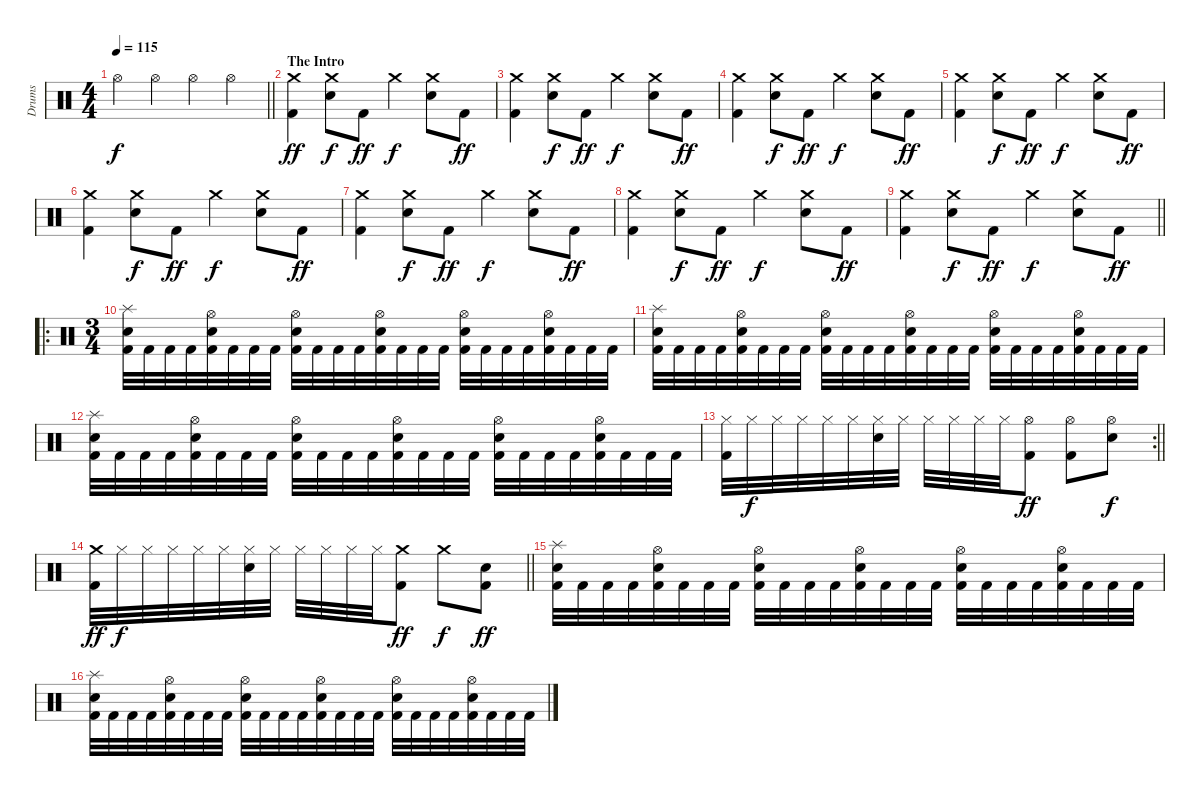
\track ("Drums" "Drums") {instrument percussion}
\staff {score}
\articulation defaults
\ts (4 4)
\tempo 115
\clef neutral
\barLineRight lightlight
\ks c "Hi-Hat (open)".4{dy f} "Hi-Hat (open)".4 "Hi-Hat (open)".4 "Hi-Hat (open)".4
|
\section ("" "The Intro")
("Crash medium (hit)" "Kick (hit) 2").4{dy ff} ("Crash medium (hit)" "Electric Snare (hit)").8{dy f} "Kick (hit) 2".8{dy ff} "Crash medium (hit)".4{dy f} ("Crash medium (hit)" "Electric Snare (hit)").8 "Kick (hit) 2".8{dy ff} |
("Crash medium (hit)" "Kick (hit) 2").4 ("Crash medium (hit)" "Electric Snare (hit)").8{dy f} "Kick (hit) 2".8{dy ff} "Crash medium (hit)".4{dy f} ("Crash medium (hit)" "Electric Snare (hit)").8 "Kick (hit) 2".8{dy ff} |
("Crash medium (hit)" "Kick (hit) 2").4 ("Crash medium (hit)" "Electric Snare (hit)").8{dy f} "Kick (hit) 2".8{dy ff} "Crash medium (hit)".4{dy f} ("Crash medium (hit)" "Electric Snare (hit)").8 "Kick (hit) 2".8{dy ff} |
("Crash medium (hit)" "Kick (hit) 2").4 ("Crash medium (hit)" "Electric Snare (hit)").8{dy f} "Kick (hit) 2".8{dy ff} "Crash medium (hit)".4{dy f} ("Crash medium (hit)" "Electric Snare (hit)").8 "Kick (hit) 2".8{dy ff} |
("Crash medium (hit)" "Kick (hit) 2").4 ("Crash medium (hit)" "Electric Snare (hit)").8{dy f} "Kick (hit) 2".8{dy ff} "Crash medium (hit)".4{dy f} ("Crash medium (hit)" "Electric Snare (hit)").8 "Kick (hit) 2".8{dy ff} |
("Crash medium (hit)" "Kick (hit) 2").4 ("Crash medium (hit)" "Electric Snare (hit)").8{dy f} "Kick (hit) 2".8{dy ff} "Crash medium (hit)".4{dy f} ("Crash medium (hit)" "Electric Snare (hit)").8 "Kick (hit) 2".8{dy ff} |
("Crash medium (hit)" "Kick (hit) 2").4 ("Crash medium (hit)" "Electric Snare (hit)").8{dy f} "Kick (hit) 2".8{dy ff} "Crash medium (hit)".4{dy f} ("Crash medium (hit)" "Electric Snare (hit)").8 "Kick (hit) 2".8{dy ff} |
\barLineRight lightlight
("Crash medium (hit)" "Kick (hit) 2").4 ("Crash medium (hit)" "Electric Snare (hit)").8{dy f} "Kick (hit) 2".8{dy ff} "Crash medium (hit)".4{dy f} ("Crash medium (hit)" "Electric Snare (hit)").8 "Kick (hit) 2".8{dy ff} |
\ro
\ts (3 4)
("Splash (hit)" "Electric Snare (hit)" "Kick (hit) 2").32 "Kick (hit) 2".32 "Kick (hit) 2".32 "Kick (hit) 2".32 ("Hi-Hat (open)" "Electric Snare (hit)" "Kick (hit) 2").32 "Kick (hit) 2".32 "Kick (hit) 2".32 "Kick (hit) 2".32 ("Hi-Hat (open)" "Electric Snare (hit)" "Kick (hit) 2").32 "Kick (hit) 2".32 "Kick (hit) 2".32 "Kick (hit) 2".32 ("Hi-Hat (open)" "Electric Snare (hit)" "Kick (hit) 2").32 "Kick (hit) 2".32 "Kick (hit) 2".32 "Kick (hit) 2".32 ("Hi-Hat (open)" "Electric Snare (hit)" "Kick (hit) 2").32 "Kick (hit) 2".32 "Kick (hit) 2".32 "Kick (hit) 2".32 ("Hi-Hat (open)" "Electric Snare (hit)" "Kick (hit) 2").32 "Kick (hit) 2".32 "Kick (hit) 2".32 "Kick (hit) 2".32 |
("Splash (hit)" "Electric Snare (hit)" "Kick (hit) 2").32 "Kick (hit) 2".32 "Kick (hit) 2".32 "Kick (hit) 2".32 ("Hi-Hat (open)" "Electric Snare (hit)" "Kick (hit) 2").32 "Kick (hit) 2".32 "Kick (hit) 2".32 "Kick (hit) 2".32 ("Hi-Hat (open)" "Electric Snare (hit)" "Kick (hit) 2").32 "Kick (hit) 2".32 "Kick (hit) 2".32 "Kick (hit) 2".32 ("Hi-Hat (open)" "Electric Snare (hit)" "Kick (hit) 2").32 "Kick (hit) 2".32 "Kick (hit) 2".32 "Kick (hit) 2".32 ("Hi-Hat (open)" "Electric Snare (hit)" "Kick (hit) 2").32 "Kick (hit) 2".32 "Kick (hit) 2".32 "Kick (hit) 2".32 ("Hi-Hat (open)" "Electric Snare (hit)" "Kick (hit) 2").32 "Kick (hit) 2".32 "Kick (hit) 2".32 "Kick (hit) 2".32 |
("Splash (hit)" "Electric Snare (hit)" "Kick (hit) 2").32 "Kick (hit) 2".32 "Kick (hit) 2".32 "Kick (hit) 2".32 ("Hi-Hat (open)" "Electric Snare (hit)" "Kick (hit) 2").32 "Kick (hit) 2".32 "Kick (hit) 2".32 "Kick (hit) 2".32 ("Hi-Hat (open)" "Electric Snare (hit)" "Kick (hit) 2").32 "Kick (hit) 2".32 "Kick (hit) 2".32 "Kick (hit) 2".32 ("Hi-Hat (open)" "Electric Snare (hit)" "Kick (hit) 2").32 "Kick (hit) 2".32 "Kick (hit) 2".32 "Kick (hit) 2".32 ("Hi-Hat (open)" "Electric Snare (hit)" "Kick (hit) 2").32 "Kick (hit) 2".32 "Kick (hit) 2".32 "Kick (hit) 2".32 ("Hi-Hat (open)" "Electric Snare (hit)" "Kick (hit) 2").32 "Kick (hit) 2".32 "Kick (hit) 2".32 "Kick (hit) 2".32 |
\rc 2
\barLineRight lightlight
("Hi-Hat (closed)" "Kick (hit) 2").32 "Hi-Hat (closed)".32{dy f} "Hi-Hat (closed)".32 "Hi-Hat (closed)".32 "Hi-Hat (closed)".32 "Hi-Hat (closed)".32 ("Hi-Hat (closed)" "Electric Snare (hit)").32 "Hi-Hat (closed)".32 "Hi-Hat (closed)".32 "Hi-Hat (closed)".32 "Hi-Hat (closed)".32 "Hi-Hat (closed)".32 ("Hi-Hat (open)" "Kick (hit) 2").8{dy ff} ("Hi-Hat (open)" "Kick (hit) 2").8 ("Hi-Hat (open)" "Electric Snare (hit)").8{dy f} |
\barLineRight lightlight
("Crash medium (hit)" "Kick (hit) 2").32{dy ff} "Hi-Hat (closed)".32{dy f} "Hi-Hat (closed)".32 "Hi-Hat (closed)".32 "Hi-Hat (closed)".32 "Hi-Hat (closed)".32 ("Hi-Hat (closed)" "Electric Snare (hit)").32 "Hi-Hat (closed)".32 "Hi-Hat (closed)".32 "Hi-Hat (closed)".32 "Hi-Hat (closed)".32 "Hi-Hat (closed)".32 ("Crash medium (hit)" "Kick (hit) 2").8{dy ff} "Crash medium (hit)".8{dy f} ("Electric Snare (hit)" "Kick (hit) 2").8{dy ff} |
("Splash (hit)" "Electric Snare (hit)" "Kick (hit) 2").32 "Kick (hit) 2".32 "Kick (hit) 2".32 "Kick (hit) 2".32 ("Hi-Hat (open)" "Electric Snare (hit)" "Kick (hit) 2").32 "Kick (hit) 2".32 "Kick (hit) 2".32 "Kick (hit) 2".32 ("Hi-Hat (open)" "Electric Snare (hit)" "Kick (hit) 2").32 "Kick (hit) 2".32 "Kick (hit) 2".32 "Kick (hit) 2".32 ("Hi-Hat (open)" "Electric Snare (hit)" "Kick (hit) 2").32 "Kick (hit) 2".32 "Kick (hit) 2".32 "Kick (hit) 2".32 ("Hi-Hat (open)" "Electric Snare (hit)" "Kick (hit) 2").32 "Kick (hit) 2".32 "Kick (hit) 2".32 "Kick (hit) 2".32 ("Hi-Hat (open)" "Electric Snare (hit)" "Kick (hit) 2").32 "Kick (hit) 2".32 "Kick (hit) 2".32 "Kick (hit) 2".32 |
("Splash (hit)" "Electric Snare (hit)" "Kick (hit) 2").32 "Kick (hit) 2".32 "Kick (hit) 2".32 "Kick (hit) 2".32 ("Hi-Hat (open)" "Electric Snare (hit)" "Kick (hit) 2").32 "Kick (hit) 2".32 "Kick (hit) 2".32 "Kick (hit) 2".32 ("Hi-Hat (open)" "Electric Snare (hit)" "Kick (hit) 2").32 "Kick (hit) 2".32 "Kick (hit) 2".32 "Kick (hit) 2".32 ("Hi-Hat (open)" "Electric Snare (hit)" "Kick (hit) 2").32 "Kick (hit) 2".32 "Kick (hit) 2".32 "Kick (hit) 2".32 ("Hi-Hat (open)" "Electric Snare (hit)" "Kick (hit) 2").32 "Kick (hit) 2".32 "Kick (hit) 2".32 "Kick (hit) 2".32 ("Hi-Hat (open)" "Electric Snare (hit)" "Kick (hit) 2").32 "Kick (hit) 2".32 "Kick (hit) 2".32 "Kick (hit) 2".32
